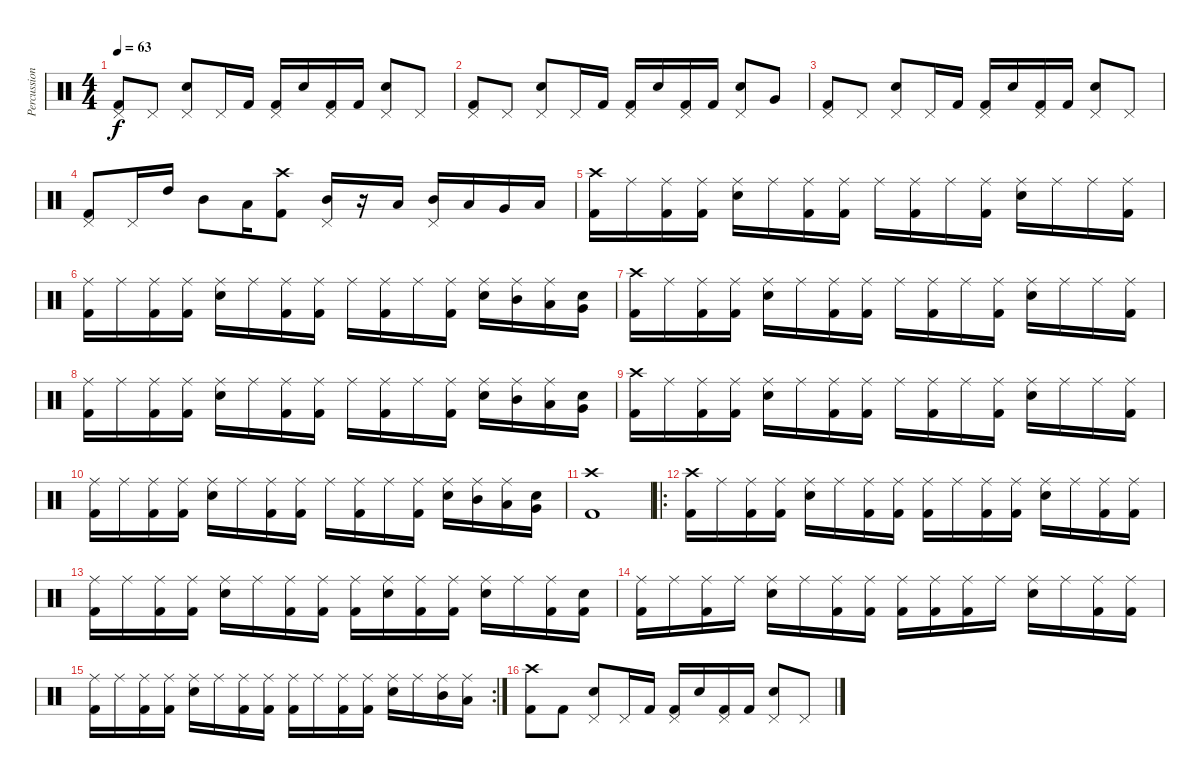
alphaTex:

\track ("Percussion" "Percussion") {instrument percussion}
\staff {score}
\articulation defaults
\ts (4 4)
\tempo 63
\clef neutral
\ks c
("Pedal Hi-Hat (hit)" "Kick (hit) 2").8{dy f} "Pedal Hi-Hat (hit)".8 ("Pedal Hi-Hat (hit)" "Electric Snare (hit)").8 "Pedal Hi-Hat (hit)".16 "Kick (hit) 2".16 ("Pedal Hi-Hat (hit)" "Kick (hit) 2").16 "Electric Snare (hit)".16 ("Pedal Hi-Hat (hit)" "Kick (hit) 2").16 "Kick (hit) 2".16 ("Pedal Hi-Hat (hit)" "Electric Snare (hit)").8 "Pedal Hi-Hat (hit)".8 |
("Pedal Hi-Hat (hit)" "Kick (hit) 2").8 "Pedal Hi-Hat (hit)".8 ("Pedal Hi-Hat (hit)" "Electric Snare (hit)").8 "Pedal Hi-Hat (hit)".16 "Kick (hit) 2".16 ("Pedal Hi-Hat (hit)" "Kick (hit) 2").16 "Electric Snare (hit)".16 ("Pedal Hi-Hat (hit)" "Kick (hit) 2").16 "Kick (hit) 2".16 ("Pedal Hi-Hat (hit)" "Electric Snare (hit)").8 "Very Low Tom (hit)".8 |
("Pedal Hi-Hat (hit)" "Kick (hit) 2").8 "Pedal Hi-Hat (hit)".8 ("Pedal Hi-Hat (hit)" "Electric Snare (hit)").8 "Pedal Hi-Hat (hit)".16 "Kick (hit) 2".16 ("Pedal Hi-Hat (hit)" "Kick (hit) 2").16 "Electric Snare (hit)".16 ("Pedal Hi-Hat (hit)" "Kick (hit) 2").16 "Kick (hit) 2".16 ("Pedal Hi-Hat (hit)" "Electric Snare (hit)").8 "Pedal Hi-Hat (hit)".8 |
("Pedal Hi-Hat (hit)" "Kick (hit) 2").8 "Pedal Hi-Hat (hit)".16 "High Tom (hit)".16 "Mid Tom (hit)".8 "Low Tom (hit)".16 ("Crash high (hit)" "Kick (hit) 2").8 ("Pedal Hi-Hat (hit)" "Mid Tom (hit)").16 r.16 "Low Tom (hit)".16 ("Pedal Hi-Hat (hit)" "Mid Tom (hit)").16 "Low Tom (hit)".16 "Very Low Tom (hit)".16 "Low Floor Tom (hit)".16 |
("Crash high (hit)" "Kick (hit) 2").16 "Ride (middle)".16 ("Ride (middle)" "Kick (hit) 2").16 ("Ride (middle)" "Kick (hit) 2").16 ("Ride (middle)" "Electric Snare (hit)").16 "Ride (middle)".16 ("Ride (middle)" "Kick (hit) 2").16 ("Ride (middle)" "Kick (hit) 2").16 "Ride (middle)".16 ("Ride (middle)" "Kick (hit) 2").16 "Ride (middle)".16 ("Ride (middle)" "Kick (hit) 2").16 ("Ride (middle)" "Electric Snare (hit)").16 "Ride (middle)".16 "Ride (middle)".16 ("Ride (middle)" "Kick (hit) 2").16 |
("Ride (middle)" "Kick (hit) 2").16 "Ride (middle)".16 ("Ride (middle)" "Kick (hit) 2").16 ("Ride (middle)" "Kick (hit) 2").16 ("Ride (middle)" "Electric Snare (hit)").16 "Ride (middle)".16 ("Ride (middle)" "Kick (hit) 2").16 ("Ride (middle)" "Kick (hit) 2").16 "Ride (middle)".16 ("Ride (middle)" "Kick (hit) 2").16 "Ride (middle)".16 ("Ride (middle)" "Kick (hit) 2").16 ("Ride (middle)" "Electric Snare (hit)").16 ("Ride (middle)" "Mid Tom (hit)").16 ("Ride (middle)" "Low Tom (hit)").16 ("Snare (hit)" "Very Low Tom (hit)").16 |
("Crash high (hit)" "Kick (hit) 2").16 "Ride (middle)".16 ("Ride (middle)" "Kick (hit) 2").16 ("Ride (middle)" "Kick (hit) 2").16 ("Ride (middle)" "Electric Snare (hit)").16 "Ride (middle)".16 ("Ride (middle)" "Kick (hit) 2").16 ("Ride (middle)" "Kick (hit) 2").16 "Ride (middle)".16 ("Ride (middle)" "Kick (hit) 2").16 "Ride (middle)".16 ("Ride (middle)" "Kick (hit) 2").16 ("Ride (middle)" "Electric Snare (hit)").16 "Ride (middle)".16 "Ride (middle)".16 ("Ride (middle)" "Kick (hit) 2").16 |
("Ride (middle)" "Kick (hit) 2").16 "Ride (middle)".16 ("Ride (middle)" "Kick (hit) 2").16 ("Ride (middle)" "Kick (hit) 2").16 ("Ride (middle)" "Electric Snare (hit)").16 "Ride (middle)".16 ("Ride (middle)" "Kick (hit) 2").16 ("Ride (middle)" "Kick (hit) 2").16 "Ride (middle)".16 ("Ride (middle)" "Kick (hit) 2").16 "Ride (middle)".16 ("Ride (middle)" "Kick (hit) 2").16 ("Ride (middle)" "Electric Snare (hit)").16 ("Ride (middle)" "Mid Tom (hit)").16 ("Ride (middle)" "Low Tom (hit)").16 ("Snare (hit)" "Very Low Tom (hit)").16 |
("Crash high (hit)" "Kick (hit) 2").16 "Ride (middle)".16 ("Ride (middle)" "Kick (hit) 2").16 ("Ride (middle)" "Kick (hit) 2").16 ("Ride (middle)" "Electric Snare (hit)").16 "Ride (middle)".16 ("Ride (middle)" "Kick (hit) 2").16 ("Ride (middle)" "Kick (hit) 2").16 "Ride (middle)".16 ("Ride (middle)" "Kick (hit) 2").16 "Ride (middle)".16 ("Ride (middle)" "Kick (hit) 2").16 ("Ride (middle)" "Electric Snare (hit)").16 "Ride (middle)".16 "Ride (middle)".16 ("Ride (middle)" "Kick (hit) 2").16 |
("Ride (middle)" "Kick (hit) 2").16 "Ride (middle)".16 ("Ride (middle)" "Kick (hit) 2").16 ("Ride (middle)" "Kick (hit) 2").16 ("Ride (middle)" "Electric Snare (hit)").16 "Ride (middle)".16 ("Ride (middle)" "Kick (hit) 2").16 ("Ride (middle)" "Kick (hit) 2").16 "Ride (middle)".16 ("Ride (middle)" "Kick (hit) 2").16 "Ride (middle)".16 ("Ride (middle)" "Kick (hit) 2").16 ("Ride (middle)" "Electric Snare (hit)").16 ("Ride (middle)" "Mid Tom (hit)").16 ("Ride (middle)" "Low Tom (hit)").16 ("Snare (hit)" "Very Low Tom (hit)").16 |
("Crash high (hit)" "Kick (hit) 2").1 |
\ro
("Crash high (hit)" "Kick (hit) 2").16 "Ride (middle)".16 ("Ride (middle)" "Kick (hit) 2").16 ("Ride (middle)" "Kick (hit) 2").16 ("Ride (middle)" "Electric Snare (hit)").16 "Ride (middle)".16 ("Ride (middle)" "Kick (hit) 2").16 ("Ride (middle)" "Kick (hit) 2").16 ("Ride (middle)" "Kick (hit) 2").16 "Ride (middle)".16 ("Ride (middle)" "Kick (hit) 2").16 ("Ride (middle)" "Kick (hit) 2").16 ("Ride (middle)" "Electric Snare (hit)").16 "Ride (middle)".16 ("Ride (middle)" "Kick (hit) 2").16 ("Ride (middle)" "Kick (hit) 2").16 |
("Ride (middle)" "Kick (hit) 2").16 "Ride (middle)".16 ("Ride (middle)" "Kick (hit) 2").16 ("Ride (middle)" "Kick (hit) 2").16 ("Ride (middle)" "Electric Snare (hit)").16 "Ride (middle)".16 ("Ride (middle)" "Kick (hit) 2").16 ("Ride (middle)" "Kick (hit) 2").16 ("Ride (middle)" "Kick (hit) 2").16 ("Ride (middle)" "Electric Snare (hit)").16 ("Ride (middle)" "Kick (hit) 2").16 ("Ride (middle)" "Kick (hit) 2").16 ("Ride (middle)" "Electric Snare (hit)").16 "Ride (middle)".16 ("Ride (middle)" "Kick (hit) 2").16 ("Snare (hit)" "Kick (hit) 2").16 |
("Ride (middle)" "Kick (hit) 2").16 "Ride (middle)".16 ("Ride (middle)" "Kick (hit) 2").16 "Ride (middle)".16 ("Ride (middle)" "Electric Snare (hit)").16 "Ride (middle)".16 ("Ride (middle)" "Kick (hit) 2").16 ("Ride (middle)" "Kick (hit) 2").16 ("Ride (middle)" "Kick (hit) 2").16 ("Ride (middle)" "Kick (hit) 2").16 ("Ride (middle)" "Kick (hit) 2").16 "Ride (middle)".16 ("Ride (middle)" "Electric Snare (hit)").16 "Ride (middle)".16 ("Ride (middle)" "Kick (hit) 2").16 ("Ride (middle)" "Kick (hit) 2").16 |
\rc 2
("Ride (middle)" "Kick (hit) 2").16 "Ride (middle)".16 ("Ride (middle)" "Kick (hit) 2").16 ("Ride (middle)" "Kick (hit) 2").16 ("Ride (middle)" "Electric Snare (hit)").16 "Ride (middle)".16 ("Ride (middle)" "Kick (hit) 2").16 ("Ride (middle)" "Kick (hit) 2").16 ("Ride (middle)" "Kick (hit) 2").16 "Ride (middle)".16 ("Ride (middle)" "Kick (hit) 2").16 ("Ride (middle)" "Kick (hit) 2").16 ("Ride (middle)" "Electric Snare (hit)").16 "Ride (middle)".16 ("Ride (middle)" "Mid Tom (hit)").16 ("Ride (middle)" "Low Tom (hit)").16 |
("Crash high (hit)" "Kick (hit) 2").8 "Kick (hit) 2".8 ("Pedal Hi-Hat (hit)" "Electric Snare (hit)").8 "Pedal Hi-Hat (hit)".16 "Kick (hit) 2".16 ("Pedal Hi-Hat (hit)" "Kick (hit) 2").16 "Electric Snare (hit)".16 ("Pedal Hi-Hat (hit)" "Kick (hit) 2").16 "Kick (hit) 2".16 ("Pedal Hi-Hat (hit)" "Electric Snare (hit)").8 "Pedal Hi-Hat (hit)".8
